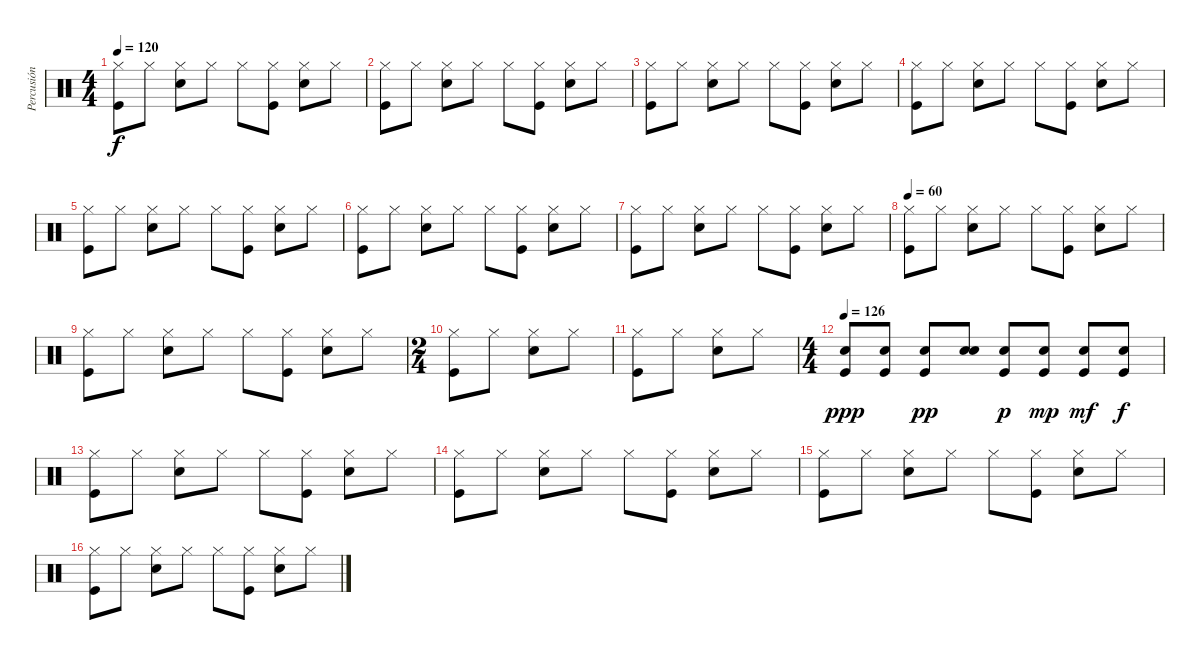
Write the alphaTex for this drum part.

\track ("Percusión" "Percusión") {instrument percussion}
\staff {score}
\articulation defaults
\ts (4 4)
\tempo 120
\clef neutral
\ks c
("Hi-Hat (closed)" "Kick (hit)").8{dy f} "Hi-Hat (closed)".8 ("Hi-Hat (closed)" "Snare (hit) 2").8 "Hi-Hat (closed)".8 "Hi-Hat (closed)".8 ("Hi-Hat (closed)" "Kick (hit)").8 ("Hi-Hat (closed)" "Snare (hit) 2").8 "Hi-Hat (closed)".8 |
("Hi-Hat (closed)" "Kick (hit)").8 "Hi-Hat (closed)".8 ("Hi-Hat (closed)" "Snare (hit) 2").8 "Hi-Hat (closed)".8 "Hi-Hat (closed)".8 ("Hi-Hat (closed)" "Kick (hit)").8 ("Hi-Hat (closed)" "Snare (hit) 2").8 "Hi-Hat (closed)".8 |
("Hi-Hat (closed)" "Kick (hit)").8 "Hi-Hat (closed)".8 ("Hi-Hat (closed)" "Snare (hit) 2").8 "Hi-Hat (closed)".8 "Hi-Hat (closed)".8 ("Hi-Hat (closed)" "Kick (hit)").8 ("Hi-Hat (closed)" "Snare (hit) 2").8 "Hi-Hat (closed)".8 |
("Hi-Hat (closed)" "Kick (hit)").8 "Hi-Hat (closed)".8 ("Hi-Hat (closed)" "Snare (hit) 2").8 "Hi-Hat (closed)".8 "Hi-Hat (closed)".8 ("Hi-Hat (closed)" "Kick (hit)").8 ("Hi-Hat (closed)" "Snare (hit) 2").8 "Hi-Hat (closed)".8 |
("Hi-Hat (closed)" "Kick (hit)").8 "Hi-Hat (closed)".8 ("Hi-Hat (closed)" "Snare (hit) 2").8 "Hi-Hat (closed)".8 "Hi-Hat (closed)".8 ("Hi-Hat (closed)" "Kick (hit)").8 ("Hi-Hat (closed)" "Snare (hit) 2").8 "Hi-Hat (closed)".8 |
("Hi-Hat (closed)" "Kick (hit)").8 "Hi-Hat (closed)".8 ("Hi-Hat (closed)" "Snare (hit) 2").8 "Hi-Hat (closed)".8 "Hi-Hat (closed)".8 ("Hi-Hat (closed)" "Kick (hit)").8 ("Hi-Hat (closed)" "Snare (hit) 2").8 "Hi-Hat (closed)".8 |
("Hi-Hat (closed)" "Kick (hit)").8 "Hi-Hat (closed)".8 ("Hi-Hat (closed)" "Snare (hit) 2").8 "Hi-Hat (closed)".8 "Hi-Hat (closed)".8 ("Hi-Hat (closed)" "Kick (hit)").8 ("Hi-Hat (closed)" "Snare (hit) 2").8 "Hi-Hat (closed)".8 |
\tempo 60
("Hi-Hat (closed)" "Kick (hit)").8 "Hi-Hat (closed)".8 ("Hi-Hat (closed)" "Snare (hit) 2").8 "Hi-Hat (closed)".8 "Hi-Hat (closed)".8 ("Hi-Hat (closed)" "Kick (hit)").8 ("Hi-Hat (closed)" "Snare (hit) 2").8 "Hi-Hat (closed)".8 |
("Hi-Hat (closed)" "Kick (hit)").8 "Hi-Hat (closed)".8 ("Hi-Hat (closed)" "Snare (hit) 2").8 "Hi-Hat (closed)".8 "Hi-Hat (closed)".8 ("Hi-Hat (closed)" "Kick (hit)").8 ("Hi-Hat (closed)" "Snare (hit) 2").8 "Hi-Hat (closed)".8 |
\ts (2 4)
("Hi-Hat (closed)" "Kick (hit)").8 "Hi-Hat (closed)".8 ("Hi-Hat (closed)" "Snare (hit) 2").8 "Hi-Hat (closed)".8 |
("Hi-Hat (closed)" "Kick (hit)").8 "Hi-Hat (closed)".8 ("Hi-Hat (closed)" "Snare (hit) 2").8 "Hi-Hat (closed)".8 |
\ts (4 4)
\tempo 126
("Kick (hit)" "Snare (hit) 2").8{dy ppp} ("Snare (hit) 2" "Kick (hit)").8 ("Snare (hit) 2" "Kick (hit)").8{dy pp} ("Snare (hit) 2" "Snare (hit) 2").8 ("Snare (hit) 2" "Kick (hit)").8{dy p} ("Snare (hit) 2" "Kick (hit)").8{dy mp} ("Snare (hit) 2" "Kick (hit)").8{dy mf} ("Snare (hit) 2" "Kick (hit)").8{dy f} |
("Hi-Hat (closed)" "Kick (hit)").8 "Hi-Hat (closed)".8 ("Hi-Hat (closed)" "Snare (hit) 2").8 "Hi-Hat (closed)".8 "Hi-Hat (closed)".8 ("Hi-Hat (closed)" "Kick (hit)").8 ("Hi-Hat (closed)" "Snare (hit) 2").8 "Hi-Hat (closed)".8 |
("Hi-Hat (closed)" "Kick (hit)").8 "Hi-Hat (closed)".8 ("Hi-Hat (closed)" "Snare (hit) 2").8 "Hi-Hat (closed)".8 "Hi-Hat (closed)".8 ("Hi-Hat (closed)" "Kick (hit)").8 ("Hi-Hat (closed)" "Snare (hit) 2").8 "Hi-Hat (closed)".8 |
("Hi-Hat (closed)" "Kick (hit)").8 "Hi-Hat (closed)".8 ("Hi-Hat (closed)" "Snare (hit) 2").8 "Hi-Hat (closed)".8 "Hi-Hat (closed)".8 ("Hi-Hat (closed)" "Kick (hit)").8 ("Hi-Hat (closed)" "Snare (hit) 2").8 "Hi-Hat (closed)".8 |
("Hi-Hat (closed)" "Kick (hit)").8 "Hi-Hat (closed)".8 ("Hi-Hat (closed)" "Snare (hit) 2").8 "Hi-Hat (closed)".8 "Hi-Hat (closed)".8 ("Hi-Hat (closed)" "Kick (hit)").8 ("Hi-Hat (closed)" "Snare (hit) 2").8 "Hi-Hat (closed)".8
